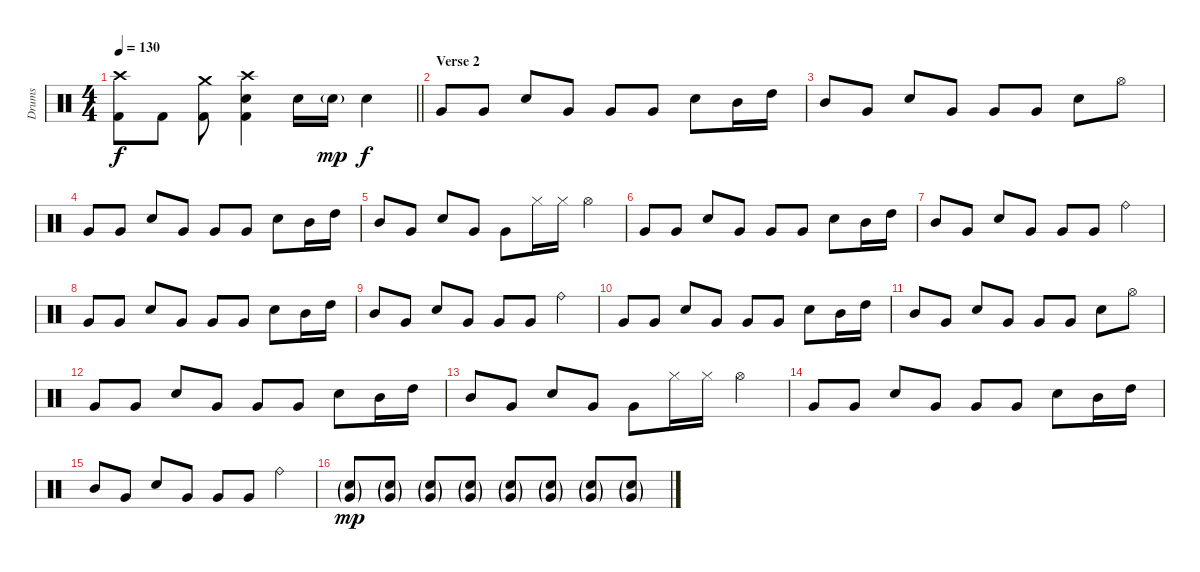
\track ("Drums" "Drums") {instrument percussion}
\staff {score}
\articulation defaults
\ts (4 4)
\tempo 130
\clef neutral
\barLineRight lightlight
\ks c
("Crash high (hit)" "Kick (hit) 2").8{dy f} "Kick (hit) 2".8 ("Crash medium (hit)" "Kick (hit) 2").8 ("Crash high (hit)" "Electric Snare (hit)" "Kick (hit) 2").4 "Electric Snare (hit)".16 "Electric Snare (hit)"{g}.16{dy mp} "Electric Snare (hit)".4{dy f} |
\section ("" "Verse 2")
"Very Low Tom (hit)".8 "Very Low Tom (hit)".8 "Electric Snare (hit)".8 "Very Low Tom (hit)".8 "Very Low Tom (hit)".8 "Very Low Tom (hit)".8 "Electric Snare (hit)".8 "Mid Tom (hit)".16 "High Tom (hit)".16 |
"Mid Tom (hit)".8 "Very Low Tom (hit)".8 "Electric Snare (hit)".8 "Very Low Tom (hit)".8 "Very Low Tom (hit)".8 "Very Low Tom (hit)".8 "Electric Snare (hit)".8 "Hi-Hat (open)".8 |
"Very Low Tom (hit)".8 "Very Low Tom (hit)".8 "Electric Snare (hit)".8 "Very Low Tom (hit)".8 "Very Low Tom (hit)".8 "Very Low Tom (hit)".8 "Electric Snare (hit)".8 "Mid Tom (hit)".16 "High Tom (hit)".16 |
"Mid Tom (hit)".8 "Very Low Tom (hit)".8 "Electric Snare (hit)".8 "Very Low Tom (hit)".8 "Very Low Tom (hit)".8 "Hi-Hat (closed)".16 "Hi-Hat (closed)".16 "Hi-Hat (open)".4 |
"Very Low Tom (hit)".8 "Very Low Tom (hit)".8 "Electric Snare (hit)".8 "Very Low Tom (hit)".8 "Very Low Tom (hit)".8 "Very Low Tom (hit)".8 "Electric Snare (hit)".8 "Mid Tom (hit)".16 "High Tom (hit)".16 |
"Mid Tom (hit)".8 "Very Low Tom (hit)".8 "Electric Snare (hit)".8 "Very Low Tom (hit)".8 "Very Low Tom (hit)".8 "Very Low Tom (hit)".8 "Ride (bell)".4 |
"Very Low Tom (hit)".8 "Very Low Tom (hit)".8 "Electric Snare (hit)".8 "Very Low Tom (hit)".8 "Very Low Tom (hit)".8 "Very Low Tom (hit)".8 "Electric Snare (hit)".8 "Mid Tom (hit)".16 "High Tom (hit)".16 |
"Mid Tom (hit)".8 "Very Low Tom (hit)".8 "Electric Snare (hit)".8 "Very Low Tom (hit)".8 "Very Low Tom (hit)".8 "Very Low Tom (hit)".8 "Ride (bell)".4 |
"Very Low Tom (hit)".8 "Very Low Tom (hit)".8 "Electric Snare (hit)".8 "Very Low Tom (hit)".8 "Very Low Tom (hit)".8 "Very Low Tom (hit)".8 "Electric Snare (hit)".8 "Mid Tom (hit)".16 "High Tom (hit)".16 |
"Mid Tom (hit)".8 "Very Low Tom (hit)".8 "Electric Snare (hit)".8 "Very Low Tom (hit)".8 "Very Low Tom (hit)".8 "Very Low Tom (hit)".8 "Electric Snare (hit)".8 "Hi-Hat (open)".8 |
"Very Low Tom (hit)".8 "Very Low Tom (hit)".8 "Electric Snare (hit)".8 "Very Low Tom (hit)".8 "Very Low Tom (hit)".8 "Very Low Tom (hit)".8 "Electric Snare (hit)".8 "Mid Tom (hit)".16 "High Tom (hit)".16 |
"Mid Tom (hit)".8 "Very Low Tom (hit)".8 "Electric Snare (hit)".8 "Very Low Tom (hit)".8 "Very Low Tom (hit)".8 "Hi-Hat (closed)".16 "Hi-Hat (closed)".16 "Hi-Hat (open)".4 |
"Very Low Tom (hit)".8 "Very Low Tom (hit)".8 "Electric Snare (hit)".8 "Very Low Tom (hit)".8 "Very Low Tom (hit)".8 "Very Low Tom (hit)".8 "Electric Snare (hit)".8 "Mid Tom (hit)".16 "High Tom (hit)".16 |
"Mid Tom (hit)".8 "Very Low Tom (hit)".8 "Electric Snare (hit)".8 "Very Low Tom (hit)".8 "Very Low Tom (hit)".8 "Very Low Tom (hit)".8 "Ride (bell)".4 |
("Electric Snare (hit)"{g} "Very Low Tom (hit)"{g}).8{dy mp} ("Electric Snare (hit)"{g} "Very Low Tom (hit)"{g}).8 ("Electric Snare (hit)"{g} "Very Low Tom (hit)"{g}).8 ("Electric Snare (hit)"{g} "Very Low Tom (hit)"{g}).8 ("Electric Snare (hit)"{g} "Very Low Tom (hit)"{g}).8 ("Electric Snare (hit)"{g} "Very Low Tom (hit)"{g}).8 ("Electric Snare (hit)"{g} "Very Low Tom (hit)"{g}).8 ("Electric Snare (hit)"{g} "Very Low Tom (hit)"{g}).8
